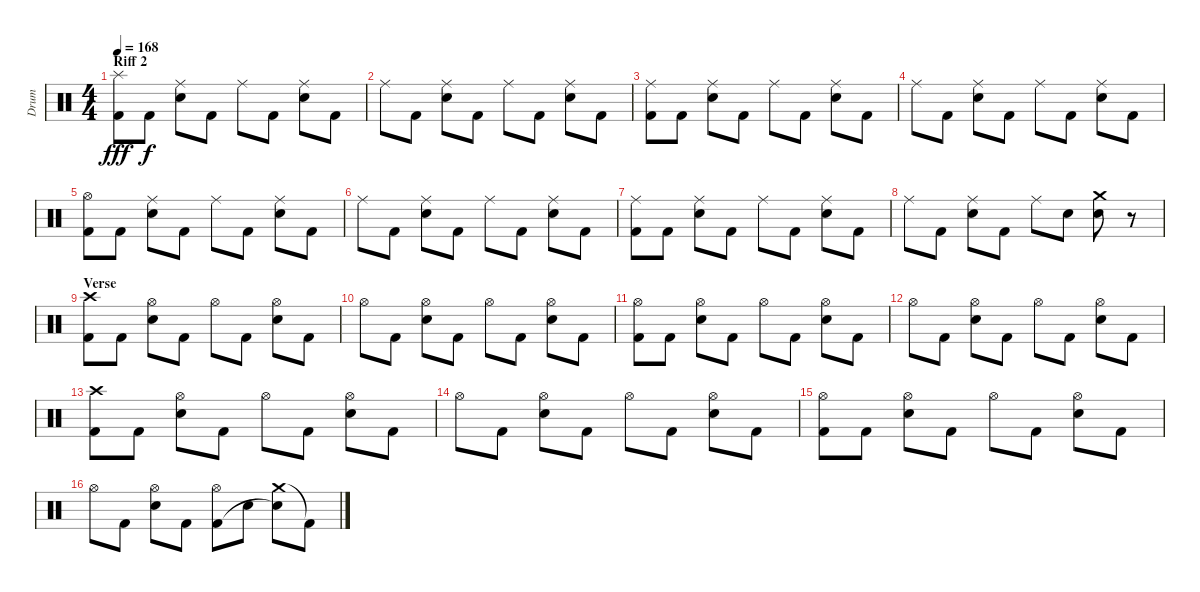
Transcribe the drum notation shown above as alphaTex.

\track ("Drum" "Drum") {instrument percussion}
\staff {score}
\articulation defaults
\ts (4 4)
\section ("" "Riff 2")
\tempo 168
\clef neutral
\ks c
("Splash (hit)" "Kick (hit) 2").8{dy fff} "Kick (hit) 2".8{dy f} ("Ride (middle)" "Electric Snare (hit)").8 "Kick (hit) 2".8 "Ride (middle)".8 "Kick (hit) 2".8 ("Ride (middle)" "Electric Snare (hit)").8 "Kick (hit) 2".8 |
"Ride (middle)".8 "Kick (hit) 2".8 ("Ride (middle)" "Electric Snare (hit)").8 "Kick (hit) 2".8 "Ride (middle)".8 "Kick (hit) 2".8 ("Ride (middle)" "Electric Snare (hit)").8 "Kick (hit) 2".8 |
("Ride (middle)" "Kick (hit) 2").8 "Kick (hit) 2".8 ("Ride (middle)" "Electric Snare (hit)").8 "Kick (hit) 2".8 "Ride (middle)".8 "Kick (hit) 2".8 ("Ride (middle)" "Electric Snare (hit)").8 "Kick (hit) 2".8 |
"Ride (middle)".8 "Kick (hit) 2".8 ("Ride (middle)" "Electric Snare (hit)").8 "Kick (hit) 2".8 "Ride (middle)".8 "Kick (hit) 2".8 ("Ride (middle)" "Electric Snare (hit)").8 "Kick (hit) 2".8 |
("Hi-Hat (open)" "Kick (hit) 2").8 "Kick (hit) 2".8 ("Ride (middle)" "Electric Snare (hit)").8 "Kick (hit) 2".8 "Ride (middle)".8 "Kick (hit) 2".8 ("Ride (middle)" "Electric Snare (hit)").8 "Kick (hit) 2".8 |
"Ride (middle)".8 "Kick (hit) 2".8 ("Ride (middle)" "Electric Snare (hit)").8 "Kick (hit) 2".8 "Ride (middle)".8 "Kick (hit) 2".8 ("Ride (middle)" "Electric Snare (hit)").8 "Kick (hit) 2".8 |
("Ride (middle)" "Kick (hit) 2").8 "Kick (hit) 2".8 ("Ride (middle)" "Electric Snare (hit)").8 "Kick (hit) 2".8 "Ride (middle)".8 "Kick (hit) 2".8 ("Ride (middle)" "Electric Snare (hit)").8 "Kick (hit) 2".8 |
"Ride (middle)".8 "Kick (hit) 2".8 ("Ride (middle)" "Electric Snare (hit)").8 "Kick (hit) 2".8 "Ride (middle)".8 "Electric Snare (hit)".8 ("Crash medium (hit)" "Electric Snare (hit)").8 r.8 |
\section ("" "Verse")
("Crash high (hit)" "Kick (hit) 2").8 "Kick (hit) 2".8 ("Hi-Hat (open)" "Electric Snare (hit)").8 "Kick (hit) 2".8 "Hi-Hat (open)".8 "Kick (hit) 2".8 ("Hi-Hat (open)" "Electric Snare (hit)").8 "Kick (hit) 2".8 |
"Hi-Hat (open)".8 "Kick (hit) 2".8 ("Hi-Hat (open)" "Electric Snare (hit)").8 "Kick (hit) 2".8 "Hi-Hat (open)".8 "Kick (hit) 2".8 ("Hi-Hat (open)" "Electric Snare (hit)").8 "Kick (hit) 2".8 |
("Hi-Hat (open)" "Kick (hit) 2").8 "Kick (hit) 2".8 ("Hi-Hat (open)" "Electric Snare (hit)").8 "Kick (hit) 2".8 "Hi-Hat (open)".8 "Kick (hit) 2".8 ("Hi-Hat (open)" "Electric Snare (hit)").8 "Kick (hit) 2".8 |
"Hi-Hat (open)".8 "Kick (hit) 2".8 ("Hi-Hat (open)" "Electric Snare (hit)").8 "Kick (hit) 2".8 "Hi-Hat (open)".8 "Kick (hit) 2".8 ("Hi-Hat (open)" "Electric Snare (hit)").8 "Kick (hit) 2".8 |
("Crash high (hit)" "Kick (hit) 2").8 "Kick (hit) 2".8 ("Hi-Hat (open)" "Electric Snare (hit)").8 "Kick (hit) 2".8 "Hi-Hat (open)".8 "Kick (hit) 2".8 ("Hi-Hat (open)" "Electric Snare (hit)").8 "Kick (hit) 2".8 |
"Hi-Hat (open)".8 "Kick (hit) 2".8 ("Hi-Hat (open)" "Electric Snare (hit)").8 "Kick (hit) 2".8 "Hi-Hat (open)".8 "Kick (hit) 2".8 ("Hi-Hat (open)" "Electric Snare (hit)").8 "Kick (hit) 2".8 |
("Hi-Hat (open)" "Kick (hit) 2").8 "Kick (hit) 2".8 ("Hi-Hat (open)" "Electric Snare (hit)").8 "Kick (hit) 2".8 "Hi-Hat (open)".8 "Kick (hit) 2".8 ("Hi-Hat (open)" "Electric Snare (hit)").8 "Kick (hit) 2".8 |
"Hi-Hat (open)".8 "Kick (hit) 2".8 ("Hi-Hat (open)" "Electric Snare (hit)").8 "Kick (hit) 2".8 ("Hi-Hat (open)" "Kick (hit) 2").8 "Electric Snare (hit)".8 ("Crash medium (hit)" "Electric Snare (hit)"{t}).8 "Kick (hit) 2"{t}.8
